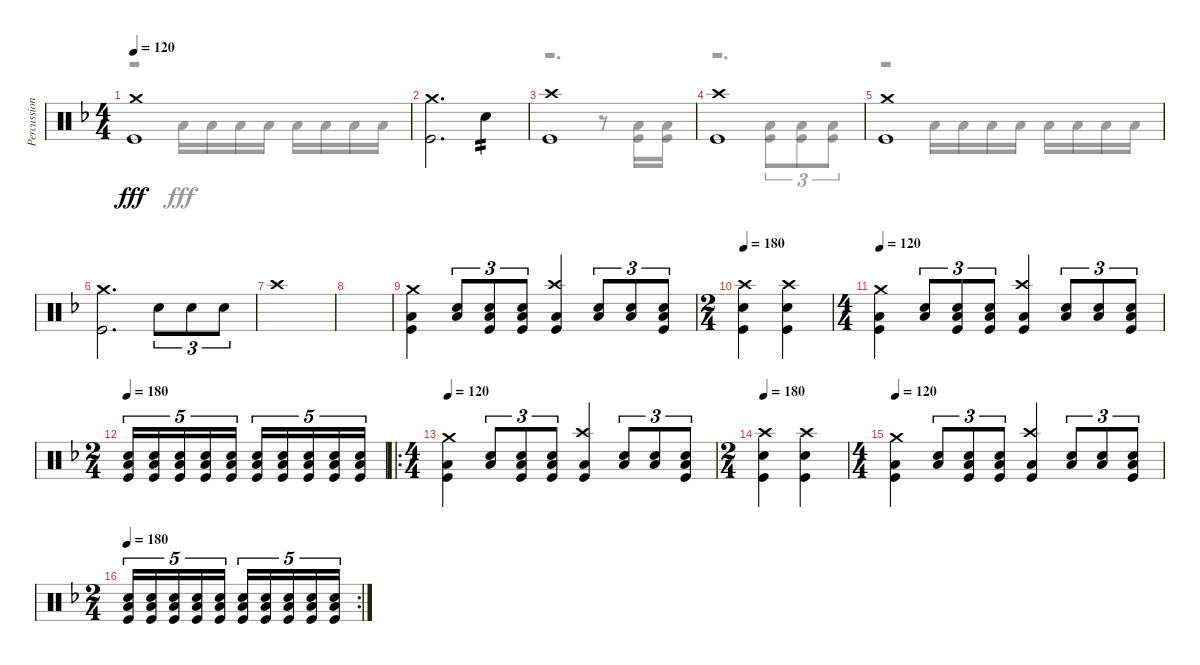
\track ("Percussion" "Percussion") {instrument percussion}
\staff {score}
\articulation defaults
\voice
\ts (4 4)
\tempo 120
\clef neutral
\ks dminor
("Crash medium (hit)" "Kick (hit)").1{dy fff} |
("Crash medium (hit)" "Kick (hit)").2{d} "Electric Snare (hit)".4{tp 2} |
("Crash high (hit)" "Kick (hit)").1 |
("Crash high (hit)" "Kick (hit)").1 |
("Crash medium (hit)" "Kick (hit)").1 |
("Crash medium (hit)" "Kick (hit)").2{d} "Electric Snare (hit)".8{tu (3 2)} "Electric Snare (hit)".8{tu (3 2)} "Electric Snare (hit)".8{tu (3 2)} |
"Crash high (hit)".1 |
|
("Crash medium (hit)" "Low Floor Tom (hit)" "Kick (hit)").4 ("Low Tom (hit)" "Electric Snare (hit)").8{tu (3 2)} ("Low Tom (hit)" "Electric Snare (hit)" "Kick (hit)").8{tu (3 2)} ("Low Tom (hit)" "Electric Snare (hit)" "Kick (hit)").8{tu (3 2)} ("Crash high (hit)" "Low Floor Tom (hit)" "Kick (hit)").4 ("Low Tom (hit)" "Electric Snare (hit)").8{tu (3 2)} ("Low Tom (hit)" "Electric Snare (hit)").8{tu (3 2)} ("Low Tom (hit)" "Electric Snare (hit)" "Kick (hit)").8{tu (3 2)} |
\ts (2 4)
\tempo 180
("Crash high (hit)" "Electric Snare (hit)" "Kick (hit)").4 ("Crash high (hit)" "Electric Snare (hit)" "Kick (hit)").4 |
\ts (4 4)
\tempo 120
("Crash medium (hit)" "Low Floor Tom (hit)" "Kick (hit)").4 ("Low Tom (hit)" "Electric Snare (hit)").8{tu (3 2)} ("Low Tom (hit)" "Electric Snare (hit)" "Kick (hit)").8{tu (3 2)} ("Low Tom (hit)" "Electric Snare (hit)" "Kick (hit)").8{tu (3 2)} ("Crash high (hit)" "Low Floor Tom (hit)" "Kick (hit)").4 ("Low Tom (hit)" "Electric Snare (hit)").8{tu (3 2)} ("Low Tom (hit)" "Electric Snare (hit)").8{tu (3 2)} ("Low Tom (hit)" "Electric Snare (hit)" "Kick (hit)").8{tu (3 2)} |
\ts (2 4)
\tempo 180
("Electric Snare (hit)" "Low Floor Tom (hit)" "Kick (hit)").16{tu (5 4)} ("Electric Snare (hit)" "Low Floor Tom (hit)" "Kick (hit)").16{tu (5 4)} ("Electric Snare (hit)" "Low Floor Tom (hit)" "Kick (hit)").16{tu (5 4)} ("Electric Snare (hit)" "Low Floor Tom (hit)" "Kick (hit)").16{tu (5 4)} ("Electric Snare (hit)" "Low Floor Tom (hit)" "Kick (hit)").16{tu (5 4)} ("Electric Snare (hit)" "Low Tom (hit)" "Kick (hit)").16{tu (5 4)} ("Electric Snare (hit)" "Low Tom (hit)" "Kick (hit)").16{tu (5 4)} ("Electric Snare (hit)" "Low Tom (hit)" "Kick (hit)").16{tu (5 4)} ("Electric Snare (hit)" "Low Tom (hit)" "Kick (hit)").16{tu (5 4)} ("Electric Snare (hit)" "Low Tom (hit)" "Kick (hit)").16{tu (5 4)} |
\ro
\ts (4 4)
\tempo 120
("Crash medium (hit)" "Low Floor Tom (hit)" "Kick (hit)").4 ("Low Tom (hit)" "Electric Snare (hit)").8{tu (3 2)} ("Low Tom (hit)" "Electric Snare (hit)" "Kick (hit)").8{tu (3 2)} ("Low Tom (hit)" "Electric Snare (hit)" "Kick (hit)").8{tu (3 2)} ("Crash high (hit)" "Low Floor Tom (hit)" "Kick (hit)").4 ("Low Tom (hit)" "Electric Snare (hit)").8{tu (3 2)} ("Low Tom (hit)" "Electric Snare (hit)").8{tu (3 2)} ("Low Tom (hit)" "Electric Snare (hit)" "Kick (hit)").8{tu (3 2)} |
\ts (2 4)
\tempo 180
("Crash high (hit)" "Electric Snare (hit)" "Kick (hit)").4 ("Crash high (hit)" "Electric Snare (hit)" "Kick (hit)").4 |
\ts (4 4)
\tempo 120
("Crash medium (hit)" "Low Floor Tom (hit)" "Kick (hit)").4 ("Low Tom (hit)" "Electric Snare (hit)").8{tu (3 2)} ("Low Tom (hit)" "Electric Snare (hit)" "Kick (hit)").8{tu (3 2)} ("Low Tom (hit)" "Electric Snare (hit)" "Kick (hit)").8{tu (3 2)} ("Crash high (hit)" "Low Floor Tom (hit)" "Kick (hit)").4 ("Low Tom (hit)" "Electric Snare (hit)").8{tu (3 2)} ("Low Tom (hit)" "Electric Snare (hit)").8{tu (3 2)} ("Low Tom (hit)" "Electric Snare (hit)" "Kick (hit)").8{tu (3 2)} |
\rc 2
\ts (2 4)
\tempo 180
("Electric Snare (hit)" "Low Floor Tom (hit)" "Kick (hit)").16{tu (5 4)} ("Electric Snare (hit)" "Low Floor Tom (hit)" "Kick (hit)").16{tu (5 4)} ("Electric Snare (hit)" "Low Floor Tom (hit)" "Kick (hit)").16{tu (5 4)} ("Electric Snare (hit)" "Low Floor Tom (hit)" "Kick (hit)").16{tu (5 4)} ("Electric Snare (hit)" "Low Floor Tom (hit)" "Kick (hit)").16{tu (5 4)} ("Electric Snare (hit)" "Low Tom (hit)" "Kick (hit)").16{tu (5 4)} ("Electric Snare (hit)" "Low Tom (hit)" "Kick (hit)").16{tu (5 4)} ("Electric Snare (hit)" "Low Tom (hit)" "Kick (hit)").16{tu (5 4)} ("Electric Snare (hit)" "Low Tom (hit)" "Kick (hit)").16{tu (5 4)} ("Electric Snare (hit)" "Low Tom (hit)" "Kick (hit)").16{tu (5 4)}
\voice
\clef neutral
\ottava regular
\simile none
\ks dminor
r.2{dy fff} "Low Tom (hit)".16 "Low Tom (hit)".16 "Low Tom (hit)".16 "Low Tom (hit)".16 "Low Floor Tom (hit)".16 "Low Floor Tom (hit)".16 "Low Floor Tom (hit)".16 "Low Floor Tom (hit)".16 |
|
r.2{d} r.8 ("Low Floor Tom (hit)" "Kick (hit)").16 ("Low Floor Tom (hit)" "Kick (hit)").16 |
r.2{d} ("Low Tom (hit)" "Kick (hit)").8{tu (3 2)} ("Low Tom (hit)" "Kick (hit)").8{tu (3 2)} ("Low Tom (hit)" "Kick (hit)").8{tu (3 2)} |
r.2 "Low Tom (hit)".16 "Low Tom (hit)".16 "Low Tom (hit)".16 "Low Tom (hit)".16 "Low Floor Tom (hit)".16 "Low Floor Tom (hit)".16 "Low Floor Tom (hit)".16 "Low Floor Tom (hit)".16 |
|
|
|
|
|
|
|
|
|
|
